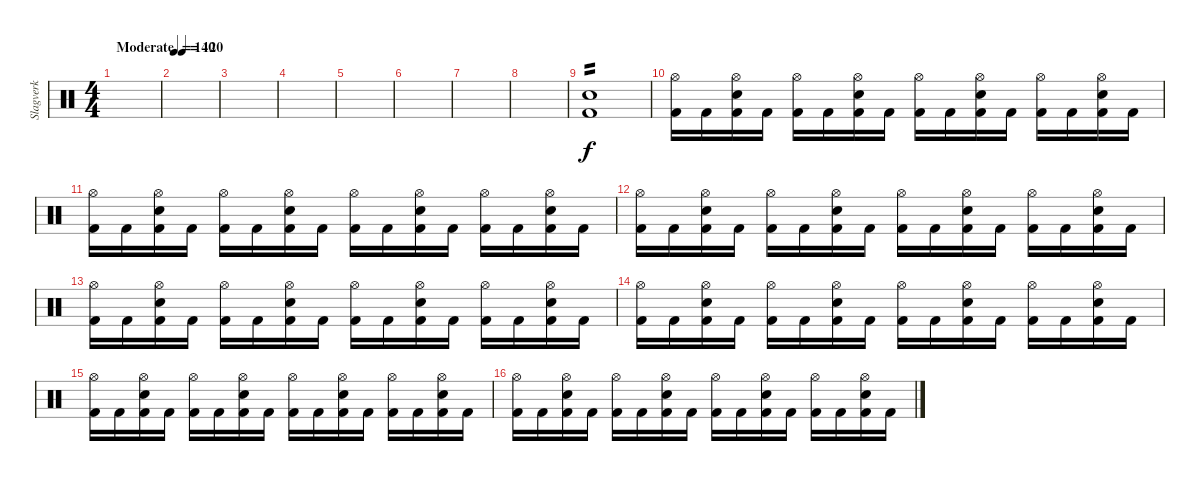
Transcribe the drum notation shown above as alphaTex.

\track ("Slagverk" "Slagverk") {instrument percussion}
\staff {score}
\articulation defaults
\ts (4 4)
\tempo (120 "Moderate")
\clef neutral
\ks c
|
\tempo 140
|
|
|
|
|
|
|
("Electric Snare (hit)" "Kick (hit) 2").1{tp 2} |
("Hi-Hat (open)" "Kick (hit) 2").16 "Kick (hit) 2".16 ("Hi-Hat (open)" "Electric Snare (hit)" "Kick (hit) 2").16 "Kick (hit) 2".16 ("Hi-Hat (open)" "Kick (hit) 2").16 "Kick (hit) 2".16 ("Hi-Hat (open)" "Electric Snare (hit)" "Kick (hit) 2").16 "Kick (hit) 2".16 ("Hi-Hat (open)" "Kick (hit) 2").16 "Kick (hit) 2".16 ("Hi-Hat (open)" "Electric Snare (hit)" "Kick (hit) 2").16 "Kick (hit) 2".16 ("Hi-Hat (open)" "Kick (hit) 2").16 "Kick (hit) 2".16 ("Hi-Hat (open)" "Electric Snare (hit)" "Kick (hit) 2").16 "Kick (hit) 2".16 |
("Hi-Hat (open)" "Kick (hit) 2").16 "Kick (hit) 2".16 ("Hi-Hat (open)" "Electric Snare (hit)" "Kick (hit) 2").16 "Kick (hit) 2".16 ("Hi-Hat (open)" "Kick (hit) 2").16 "Kick (hit) 2".16 ("Hi-Hat (open)" "Electric Snare (hit)" "Kick (hit) 2").16 "Kick (hit) 2".16 ("Hi-Hat (open)" "Kick (hit) 2").16 "Kick (hit) 2".16 ("Hi-Hat (open)" "Electric Snare (hit)" "Kick (hit) 2").16 "Kick (hit) 2".16 ("Hi-Hat (open)" "Kick (hit) 2").16 "Kick (hit) 2".16 ("Hi-Hat (open)" "Electric Snare (hit)" "Kick (hit) 2").16 "Kick (hit) 2".16 |
("Hi-Hat (open)" "Kick (hit) 2").16 "Kick (hit) 2".16 ("Hi-Hat (open)" "Electric Snare (hit)" "Kick (hit) 2").16 "Kick (hit) 2".16 ("Hi-Hat (open)" "Kick (hit) 2").16 "Kick (hit) 2".16 ("Hi-Hat (open)" "Electric Snare (hit)" "Kick (hit) 2").16 "Kick (hit) 2".16 ("Hi-Hat (open)" "Kick (hit) 2").16 "Kick (hit) 2".16 ("Hi-Hat (open)" "Electric Snare (hit)" "Kick (hit) 2").16 "Kick (hit) 2".16 ("Hi-Hat (open)" "Kick (hit) 2").16 "Kick (hit) 2".16 ("Hi-Hat (open)" "Electric Snare (hit)" "Kick (hit) 2").16 "Kick (hit) 2".16 |
("Hi-Hat (open)" "Kick (hit) 2").16 "Kick (hit) 2".16 ("Hi-Hat (open)" "Electric Snare (hit)" "Kick (hit) 2").16 "Kick (hit) 2".16 ("Hi-Hat (open)" "Kick (hit) 2").16 "Kick (hit) 2".16 ("Hi-Hat (open)" "Electric Snare (hit)" "Kick (hit) 2").16 "Kick (hit) 2".16 ("Hi-Hat (open)" "Kick (hit) 2").16 "Kick (hit) 2".16 ("Hi-Hat (open)" "Electric Snare (hit)" "Kick (hit) 2").16 "Kick (hit) 2".16 ("Hi-Hat (open)" "Kick (hit) 2").16 "Kick (hit) 2".16 ("Hi-Hat (open)" "Electric Snare (hit)" "Kick (hit) 2").16 "Kick (hit) 2".16 |
("Hi-Hat (open)" "Kick (hit) 2").16 "Kick (hit) 2".16 ("Hi-Hat (open)" "Electric Snare (hit)" "Kick (hit) 2").16 "Kick (hit) 2".16 ("Hi-Hat (open)" "Kick (hit) 2").16 "Kick (hit) 2".16 ("Hi-Hat (open)" "Electric Snare (hit)" "Kick (hit) 2").16 "Kick (hit) 2".16 ("Hi-Hat (open)" "Kick (hit) 2").16 "Kick (hit) 2".16 ("Hi-Hat (open)" "Electric Snare (hit)" "Kick (hit) 2").16 "Kick (hit) 2".16 ("Hi-Hat (open)" "Kick (hit) 2").16 "Kick (hit) 2".16 ("Hi-Hat (open)" "Electric Snare (hit)" "Kick (hit) 2").16 "Kick (hit) 2".16 |
("Hi-Hat (open)" "Kick (hit) 2").16 "Kick (hit) 2".16 ("Hi-Hat (open)" "Electric Snare (hit)" "Kick (hit) 2").16 "Kick (hit) 2".16 ("Hi-Hat (open)" "Kick (hit) 2").16 "Kick (hit) 2".16 ("Hi-Hat (open)" "Electric Snare (hit)" "Kick (hit) 2").16 "Kick (hit) 2".16 ("Hi-Hat (open)" "Kick (hit) 2").16 "Kick (hit) 2".16 ("Hi-Hat (open)" "Electric Snare (hit)" "Kick (hit) 2").16 "Kick (hit) 2".16 ("Hi-Hat (open)" "Kick (hit) 2").16 "Kick (hit) 2".16 ("Hi-Hat (open)" "Electric Snare (hit)" "Kick (hit) 2").16 "Kick (hit) 2".16 |
("Hi-Hat (open)" "Kick (hit) 2").16 "Kick (hit) 2".16 ("Hi-Hat (open)" "Electric Snare (hit)" "Kick (hit) 2").16 "Kick (hit) 2".16 ("Hi-Hat (open)" "Kick (hit) 2").16 "Kick (hit) 2".16 ("Hi-Hat (open)" "Electric Snare (hit)" "Kick (hit) 2").16 "Kick (hit) 2".16 ("Hi-Hat (open)" "Kick (hit) 2").16 "Kick (hit) 2".16 ("Hi-Hat (open)" "Electric Snare (hit)" "Kick (hit) 2").16 "Kick (hit) 2".16 ("Hi-Hat (open)" "Kick (hit) 2").16 "Kick (hit) 2".16 ("Hi-Hat (open)" "Electric Snare (hit)" "Kick (hit) 2").16 "Kick (hit) 2".16
